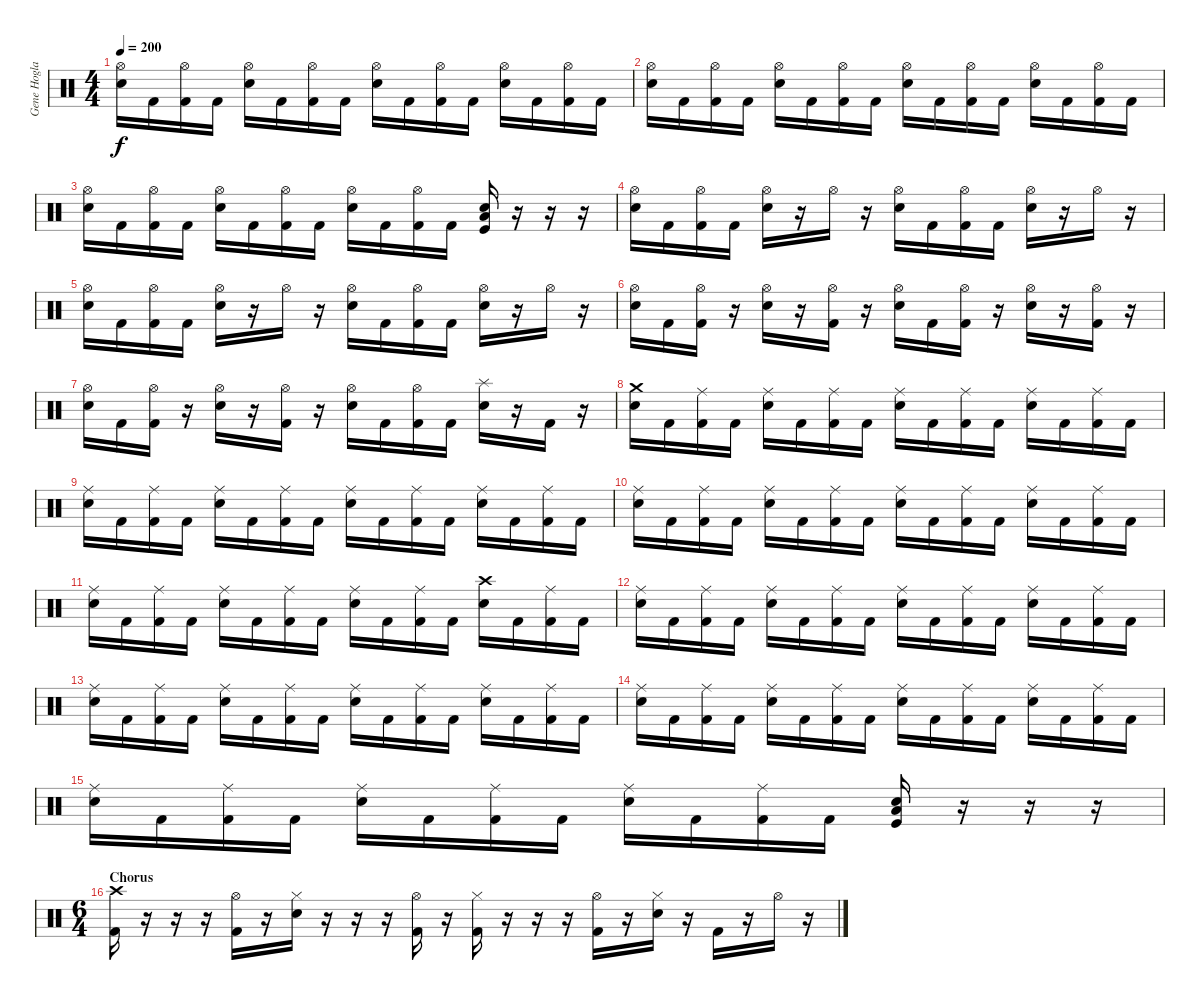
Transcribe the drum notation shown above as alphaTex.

\track ("Gene Hoglan" "Gene Hogla") {instrument percussion}
\staff {score}
\articulation defaults
\ts (4 4)
\tempo 200
\clef neutral
\ks c
("Hi-Hat (open)" "Electric Snare (hit)").16{dy f} "Kick (hit) 2".16 ("Hi-Hat (open)" "Kick (hit) 2").16 "Kick (hit) 2".16 ("Hi-Hat (open)" "Electric Snare (hit)").16 "Kick (hit) 2".16 ("Hi-Hat (open)" "Kick (hit) 2").16 "Kick (hit) 2".16 ("Hi-Hat (open)" "Electric Snare (hit)").16 "Kick (hit) 2".16 ("Hi-Hat (open)" "Kick (hit) 2").16 "Kick (hit) 2".16 ("Hi-Hat (open)" "Electric Snare (hit)").16 "Kick (hit) 2".16 ("Hi-Hat (open)" "Kick (hit) 2").16 "Kick (hit) 2".16 |
("Hi-Hat (open)" "Electric Snare (hit)").16 "Kick (hit) 2".16 ("Hi-Hat (open)" "Kick (hit) 2").16 "Kick (hit) 2".16 ("Hi-Hat (open)" "Electric Snare (hit)").16 "Kick (hit) 2".16 ("Hi-Hat (open)" "Kick (hit) 2").16 "Kick (hit) 2".16 ("Hi-Hat (open)" "Electric Snare (hit)").16 "Kick (hit) 2".16 ("Hi-Hat (open)" "Kick (hit) 2").16 "Kick (hit) 2".16 ("Hi-Hat (open)" "Electric Snare (hit)").16 "Kick (hit) 2".16 ("Hi-Hat (open)" "Kick (hit) 2").16 "Kick (hit) 2".16 |
("Hi-Hat (open)" "Electric Snare (hit)").16 "Kick (hit) 2".16 ("Hi-Hat (open)" "Kick (hit) 2").16 "Kick (hit) 2".16 ("Hi-Hat (open)" "Electric Snare (hit)").16 "Kick (hit) 2".16 ("Hi-Hat (open)" "Kick (hit) 2").16 "Kick (hit) 2".16 ("Hi-Hat (open)" "Electric Snare (hit)").16 "Kick (hit) 2".16 ("Hi-Hat (open)" "Kick (hit) 2").16 "Kick (hit) 2".16 ("Low Tom (hit)" "Electric Snare (hit)" "Kick (hit)").16 r.16 r.16 r.16 |
("Hi-Hat (open)" "Electric Snare (hit)").16 "Kick (hit) 2".16 ("Hi-Hat (open)" "Kick (hit) 2").16 "Kick (hit) 2".16 ("Hi-Hat (open)" "Electric Snare (hit)").16 r.16 "Hi-Hat (open)".16 r.16 ("Hi-Hat (open)" "Electric Snare (hit)").16 "Kick (hit) 2".16 ("Hi-Hat (open)" "Kick (hit) 2").16 "Kick (hit) 2".16 ("Hi-Hat (open)" "Electric Snare (hit)").16 r.16 "Hi-Hat (open)".16 r.16 |
("Hi-Hat (open)" "Electric Snare (hit)").16 "Kick (hit) 2".16 ("Hi-Hat (open)" "Kick (hit) 2").16 "Kick (hit) 2".16 ("Hi-Hat (open)" "Electric Snare (hit)").16 r.16 "Hi-Hat (open)".16 r.16 ("Hi-Hat (open)" "Electric Snare (hit)").16 "Kick (hit) 2".16 ("Hi-Hat (open)" "Kick (hit) 2").16 "Kick (hit) 2".16 ("Hi-Hat (open)" "Electric Snare (hit)").16 r.16 "Hi-Hat (open)".16 r.16 |
("Hi-Hat (open)" "Electric Snare (hit)").16 "Kick (hit) 2".16 ("Hi-Hat (open)" "Kick (hit) 2").16 r.16 ("Hi-Hat (open)" "Electric Snare (hit)").16 r.16 ("Hi-Hat (open)" "Kick (hit) 2").16 r.16 ("Hi-Hat (open)" "Electric Snare (hit)").16 "Kick (hit) 2".16 ("Hi-Hat (open)" "Kick (hit) 2").16 r.16 ("Hi-Hat (open)" "Electric Snare (hit)").16 r.16 ("Hi-Hat (open)" "Kick (hit) 2").16 r.16 |
("Hi-Hat (open)" "Electric Snare (hit)").16 "Kick (hit) 2".16 ("Hi-Hat (open)" "Kick (hit) 2").16 r.16 ("Hi-Hat (open)" "Electric Snare (hit)").16 r.16 ("Hi-Hat (open)" "Kick (hit) 2").16 r.16 ("Hi-Hat (open)" "Electric Snare (hit)").16 "Kick (hit) 2".16 ("Hi-Hat (open)" "Kick (hit) 2").16 "Kick (hit) 2".16 ("Splash (hit)" "Electric Snare (hit)").16 r.16 "Kick (hit) 2".16 r.16 |
("Crash medium (hit)" "Electric Snare (hit)").16 "Kick (hit) 2".16 ("Ride (middle)" "Kick (hit) 2").16 "Kick (hit) 2".16 ("Ride (middle)" "Electric Snare (hit)").16 "Kick (hit) 2".16 ("Ride (middle)" "Kick (hit) 2").16 "Kick (hit) 2".16 ("Ride (middle)" "Electric Snare (hit)").16 "Kick (hit) 2".16 ("Ride (middle)" "Kick (hit) 2").16 "Kick (hit) 2".16 ("Ride (middle)" "Electric Snare (hit)").16 "Kick (hit) 2".16 ("Ride (middle)" "Kick (hit) 2").16 "Kick (hit) 2".16 |
("Ride (middle)" "Electric Snare (hit)").16 "Kick (hit) 2".16 ("Ride (middle)" "Kick (hit) 2").16 "Kick (hit) 2".16 ("Ride (middle)" "Electric Snare (hit)").16 "Kick (hit) 2".16 ("Ride (middle)" "Kick (hit) 2").16 "Kick (hit) 2".16 ("Ride (middle)" "Electric Snare (hit)").16 "Kick (hit) 2".16 ("Ride (middle)" "Kick (hit) 2").16 "Kick (hit) 2".16 ("Ride (middle)" "Electric Snare (hit)").16 "Kick (hit) 2".16 ("Ride (middle)" "Kick (hit) 2").16 "Kick (hit) 2".16 |
("Ride (middle)" "Electric Snare (hit)").16 "Kick (hit) 2".16 ("Ride (middle)" "Kick (hit) 2").16 "Kick (hit) 2".16 ("Ride (middle)" "Electric Snare (hit)").16 "Kick (hit) 2".16 ("Ride (middle)" "Kick (hit) 2").16 "Kick (hit) 2".16 ("Ride (middle)" "Electric Snare (hit)").16 "Kick (hit) 2".16 ("Ride (middle)" "Kick (hit) 2").16 "Kick (hit) 2".16 ("Ride (middle)" "Electric Snare (hit)").16 "Kick (hit) 2".16 ("Ride (middle)" "Kick (hit) 2").16 "Kick (hit) 2".16 |
("Ride (middle)" "Electric Snare (hit)").16 "Kick (hit) 2".16 ("Ride (middle)" "Kick (hit) 2").16 "Kick (hit) 2".16 ("Ride (middle)" "Electric Snare (hit)").16 "Kick (hit) 2".16 ("Ride (middle)" "Kick (hit) 2").16 "Kick (hit) 2".16 ("Ride (middle)" "Electric Snare (hit)").16 "Kick (hit) 2".16 ("Ride (middle)" "Kick (hit) 2").16 "Kick (hit) 2".16 ("Crash high (hit)" "Electric Snare (hit)").16 "Kick (hit) 2".16 ("Ride (middle)" "Kick (hit) 2").16 "Kick (hit) 2".16 |
("Ride (middle)" "Electric Snare (hit)").16 "Kick (hit) 2".16 ("Ride (middle)" "Kick (hit) 2").16 "Kick (hit) 2".16 ("Ride (middle)" "Electric Snare (hit)").16 "Kick (hit) 2".16 ("Ride (middle)" "Kick (hit) 2").16 "Kick (hit) 2".16 ("Ride (middle)" "Electric Snare (hit)").16 "Kick (hit) 2".16 ("Ride (middle)" "Kick (hit) 2").16 "Kick (hit) 2".16 ("Ride (middle)" "Electric Snare (hit)").16 "Kick (hit) 2".16 ("Ride (middle)" "Kick (hit) 2").16 "Kick (hit) 2".16 |
("Ride (middle)" "Electric Snare (hit)").16 "Kick (hit) 2".16 ("Ride (middle)" "Kick (hit) 2").16 "Kick (hit) 2".16 ("Ride (middle)" "Electric Snare (hit)").16 "Kick (hit) 2".16 ("Ride (middle)" "Kick (hit) 2").16 "Kick (hit) 2".16 ("Ride (middle)" "Electric Snare (hit)").16 "Kick (hit) 2".16 ("Ride (middle)" "Kick (hit) 2").16 "Kick (hit) 2".16 ("Ride (middle)" "Electric Snare (hit)").16 "Kick (hit) 2".16 ("Ride (middle)" "Kick (hit) 2").16 "Kick (hit) 2".16 |
("Ride (middle)" "Electric Snare (hit)").16 "Kick (hit) 2".16 ("Ride (middle)" "Kick (hit) 2").16 "Kick (hit) 2".16 ("Ride (middle)" "Electric Snare (hit)").16 "Kick (hit) 2".16 ("Ride (middle)" "Kick (hit) 2").16 "Kick (hit) 2".16 ("Ride (middle)" "Electric Snare (hit)").16 "Kick (hit) 2".16 ("Ride (middle)" "Kick (hit) 2").16 "Kick (hit) 2".16 ("Ride (middle)" "Electric Snare (hit)").16 "Kick (hit) 2".16 ("Ride (middle)" "Kick (hit) 2").16 "Kick (hit) 2".16 |
("Ride (middle)" "Electric Snare (hit)").16 "Kick (hit) 2".16 ("Ride (middle)" "Kick (hit) 2").16 "Kick (hit) 2".16 ("Ride (middle)" "Electric Snare (hit)").16 "Kick (hit) 2".16 ("Ride (middle)" "Kick (hit) 2").16 "Kick (hit) 2".16 ("Ride (middle)" "Electric Snare (hit)").16 "Kick (hit) 2".16 ("Ride (middle)" "Kick (hit) 2").16 "Kick (hit) 2".16 ("Low Tom (hit)" "Electric Snare (hit)" "Kick (hit)").16 r.16 r.16 r.16 |
\ts (6 4)
\section ("" "Chorus")
("Crash high (hit)" "Kick (hit) 2").16 r.16 r.16 r.16 ("Hi-Hat (open)" "Kick (hit) 2").16 r.16 ("Hi-Hat (closed)" "Electric Snare (hit)").16 r.16 r.16 r.16 ("Hi-Hat (open)" "Kick (hit) 2").16 r.16 ("Hi-Hat (closed)" "Kick (hit) 2").16 r.16 r.16 r.16 ("Hi-Hat (open)" "Kick (hit) 2").16 r.16 ("Hi-Hat (closed)" "Electric Snare (hit)").16 r.16 "Kick (hit) 2".16 r.16 "Hi-Hat (open)".16 r.16
